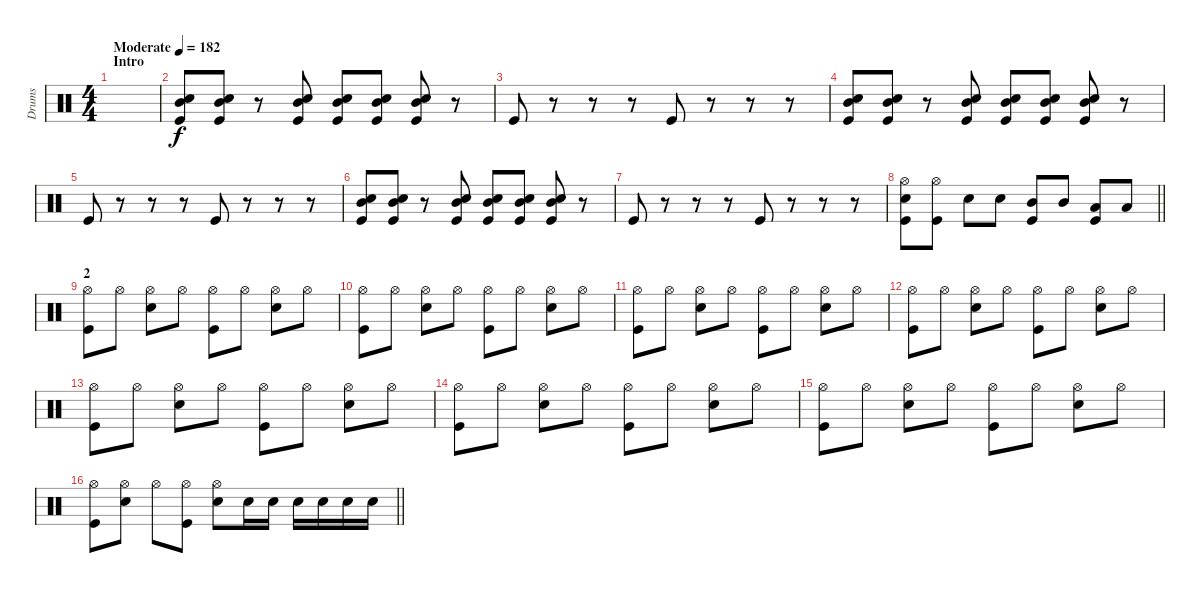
\track ("Drums" "Drums") {instrument percussion}
\staff {score}
\articulation defaults
\ts (4 4)
\section ("" "Intro")
\tempo (182 "Moderate")
\clef neutral
\ks c
|
("Mid Tom (hit)" "Electric Snare (hit)" "Kick (hit)").8 ("Mid Tom (hit)" "Electric Snare (hit)" "Kick (hit)").8 r.8 ("Mid Tom (hit)" "Electric Snare (hit)" "Kick (hit)").8 ("Mid Tom (hit)" "Electric Snare (hit)" "Kick (hit)").8 ("Mid Tom (hit)" "Electric Snare (hit)" "Kick (hit)").8 ("Mid Tom (hit)" "Electric Snare (hit)" "Kick (hit)").8 r.8 |
"Kick (hit)".8 r.8 r.8 r.8 "Kick (hit)".8 r.8 r.8 r.8 |
("Mid Tom (hit)" "Electric Snare (hit)" "Kick (hit)").8 ("Mid Tom (hit)" "Electric Snare (hit)" "Kick (hit)").8 r.8 ("Mid Tom (hit)" "Electric Snare (hit)" "Kick (hit)").8 ("Mid Tom (hit)" "Electric Snare (hit)" "Kick (hit)").8 ("Mid Tom (hit)" "Electric Snare (hit)" "Kick (hit)").8 ("Mid Tom (hit)" "Electric Snare (hit)" "Kick (hit)").8 r.8 |
"Kick (hit)".8 r.8 r.8 r.8 "Kick (hit)".8 r.8 r.8 r.8 |
("Mid Tom (hit)" "Electric Snare (hit)" "Kick (hit)").8 ("Mid Tom (hit)" "Electric Snare (hit)" "Kick (hit)").8 r.8 ("Mid Tom (hit)" "Electric Snare (hit)" "Kick (hit)").8 ("Mid Tom (hit)" "Electric Snare (hit)" "Kick (hit)").8 ("Mid Tom (hit)" "Electric Snare (hit)" "Kick (hit)").8 ("Mid Tom (hit)" "Electric Snare (hit)" "Kick (hit)").8 r.8 |
"Kick (hit)".8 r.8 r.8 r.8 "Kick (hit)".8 r.8 r.8 r.8 |
\barLineRight lightlight
("Hi-Hat (open)" "Electric Snare (hit)" "Kick (hit)").8 ("Hi-Hat (open)" "Kick (hit)").8 "Electric Snare (hit)".8 "Electric Snare (hit)".8 ("Mid Tom (hit)" "Kick (hit)").8 "Mid Tom (hit)".8 ("Low Tom (hit)" "Kick (hit)").8 "Low Tom (hit)".8 |
\section ("" "2")
("Hi-Hat (open)" "Kick (hit)").8 "Hi-Hat (open)".8 ("Hi-Hat (open)" "Electric Snare (hit)").8 "Hi-Hat (open)".8 ("Hi-Hat (open)" "Kick (hit)").8 "Hi-Hat (open)".8 ("Hi-Hat (open)" "Electric Snare (hit)").8 "Hi-Hat (open)".8 |
("Hi-Hat (open)" "Kick (hit)").8 "Hi-Hat (open)".8 ("Hi-Hat (open)" "Electric Snare (hit)").8 "Hi-Hat (open)".8 ("Hi-Hat (open)" "Kick (hit)").8 "Hi-Hat (open)".8 ("Hi-Hat (open)" "Electric Snare (hit)").8 "Hi-Hat (open)".8 |
("Hi-Hat (open)" "Kick (hit)").8 "Hi-Hat (open)".8 ("Hi-Hat (open)" "Electric Snare (hit)").8 "Hi-Hat (open)".8 ("Hi-Hat (open)" "Kick (hit)").8 "Hi-Hat (open)".8 ("Hi-Hat (open)" "Electric Snare (hit)").8 "Hi-Hat (open)".8 |
("Hi-Hat (open)" "Kick (hit)").8 "Hi-Hat (open)".8 ("Hi-Hat (open)" "Electric Snare (hit)").8 "Hi-Hat (open)".8 ("Hi-Hat (open)" "Kick (hit)").8 "Hi-Hat (open)".8 ("Hi-Hat (open)" "Electric Snare (hit)").8 "Hi-Hat (open)".8 |
("Hi-Hat (open)" "Kick (hit)").8 "Hi-Hat (open)".8 ("Hi-Hat (open)" "Electric Snare (hit)").8 "Hi-Hat (open)".8 ("Hi-Hat (open)" "Kick (hit)").8 "Hi-Hat (open)".8 ("Hi-Hat (open)" "Electric Snare (hit)").8 "Hi-Hat (open)".8 |
("Hi-Hat (open)" "Kick (hit)").8 "Hi-Hat (open)".8 ("Hi-Hat (open)" "Electric Snare (hit)").8 "Hi-Hat (open)".8 ("Hi-Hat (open)" "Kick (hit)").8 "Hi-Hat (open)".8 ("Hi-Hat (open)" "Electric Snare (hit)").8 "Hi-Hat (open)".8 |
("Hi-Hat (open)" "Kick (hit)").8 "Hi-Hat (open)".8 ("Hi-Hat (open)" "Electric Snare (hit)").8 "Hi-Hat (open)".8 ("Hi-Hat (open)" "Kick (hit)").8 "Hi-Hat (open)".8 ("Hi-Hat (open)" "Electric Snare (hit)").8 "Hi-Hat (open)".8 |
\barLineRight lightlight
("Hi-Hat (open)" "Kick (hit)").8 ("Hi-Hat (open)" "Electric Snare (hit)").8 "Hi-Hat (open)".8 ("Hi-Hat (open)" "Kick (hit)").8 ("Hi-Hat (open)" "Electric Snare (hit)").8 "Electric Snare (hit)".16 "Electric Snare (hit)".16 "Electric Snare (hit)".16 "Electric Snare (hit)".16 "Electric Snare (hit)".16 "Electric Snare (hit)".16
